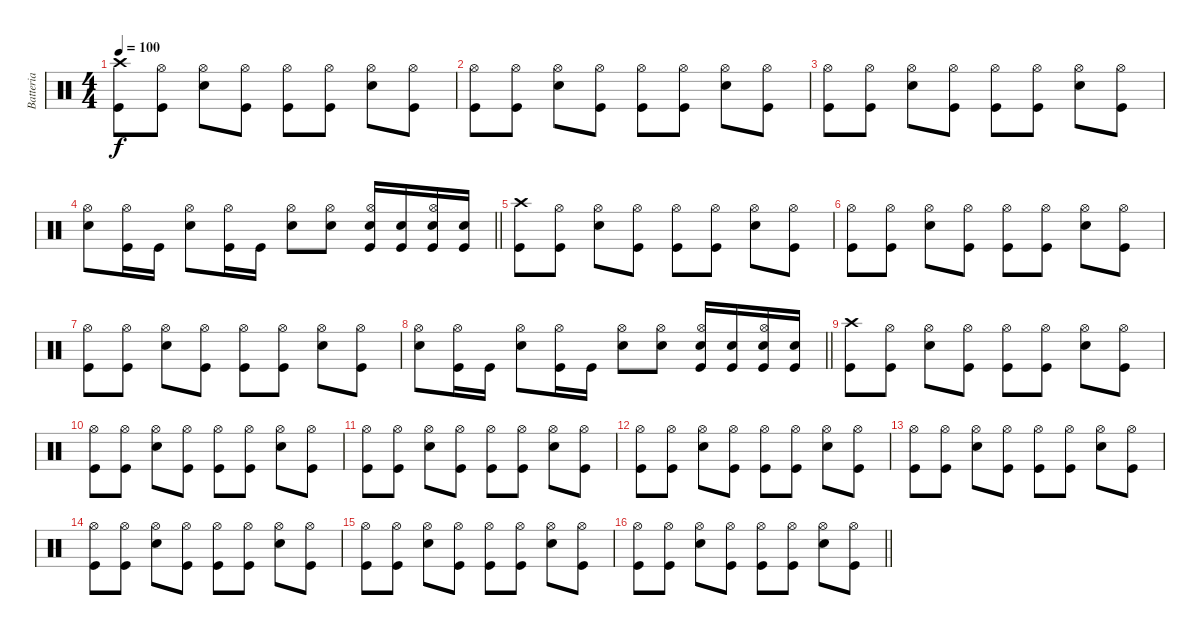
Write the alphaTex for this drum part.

\track ("Batteria" "Batteria") {instrument percussion}
\staff {score}
\articulation defaults
\ts (4 4)
\tempo 100
\clef neutral
\ks c
("Kick (hit)" "Crash high (hit)").8{dy f} ("Kick (hit)" "Hi-Hat (open)").8 ("Snare (hit) 2" "Hi-Hat (open)").8 ("Kick (hit)" "Hi-Hat (open)").8 ("Kick (hit)" "Hi-Hat (open)").8 ("Kick (hit)" "Hi-Hat (open)").8 ("Snare (hit) 2" "Hi-Hat (open)").8 ("Kick (hit)" "Hi-Hat (open)").8 |
("Kick (hit)" "Hi-Hat (open)").8 ("Kick (hit)" "Hi-Hat (open)").8 ("Snare (hit) 2" "Hi-Hat (open)").8 ("Kick (hit)" "Hi-Hat (open)").8 ("Kick (hit)" "Hi-Hat (open)").8 ("Kick (hit)" "Hi-Hat (open)").8 ("Snare (hit) 2" "Hi-Hat (open)").8 ("Kick (hit)" "Hi-Hat (open)").8 |
("Kick (hit)" "Hi-Hat (open)").8 ("Kick (hit)" "Hi-Hat (open)").8 ("Snare (hit) 2" "Hi-Hat (open)").8 ("Kick (hit)" "Hi-Hat (open)").8 ("Kick (hit)" "Hi-Hat (open)").8 ("Kick (hit)" "Hi-Hat (open)").8 ("Snare (hit) 2" "Hi-Hat (open)").8 ("Kick (hit)" "Hi-Hat (open)").8 |
\barLineRight lightlight
("Snare (hit) 2" "Hi-Hat (open)").8 ("Kick (hit)" "Hi-Hat (open)").16 "Kick (hit)".16 ("Snare (hit) 2" "Hi-Hat (open)").8 ("Kick (hit)" "Hi-Hat (open)").16 "Kick (hit)".16 ("Snare (hit) 2" "Hi-Hat (open)").8 ("Snare (hit) 2" "Hi-Hat (open)").8 ("Kick (hit)" "Hi-Hat (open)" "Snare (hit) 2").16 ("Kick (hit)" "Snare (hit) 2").16 ("Kick (hit)" "Hi-Hat (open)" "Snare (hit) 2").16 ("Kick (hit)" "Snare (hit) 2").16 |
("Kick (hit)" "Crash high (hit)").8 ("Kick (hit)" "Hi-Hat (open)").8 ("Snare (hit) 2" "Hi-Hat (open)").8 ("Kick (hit)" "Hi-Hat (open)").8 ("Kick (hit)" "Hi-Hat (open)").8 ("Kick (hit)" "Hi-Hat (open)").8 ("Snare (hit) 2" "Hi-Hat (open)").8 ("Kick (hit)" "Hi-Hat (open)").8 |
("Kick (hit)" "Hi-Hat (open)").8 ("Kick (hit)" "Hi-Hat (open)").8 ("Snare (hit) 2" "Hi-Hat (open)").8 ("Kick (hit)" "Hi-Hat (open)").8 ("Kick (hit)" "Hi-Hat (open)").8 ("Kick (hit)" "Hi-Hat (open)").8 ("Snare (hit) 2" "Hi-Hat (open)").8 ("Kick (hit)" "Hi-Hat (open)").8 |
("Kick (hit)" "Hi-Hat (open)").8 ("Kick (hit)" "Hi-Hat (open)").8 ("Snare (hit) 2" "Hi-Hat (open)").8 ("Kick (hit)" "Hi-Hat (open)").8 ("Kick (hit)" "Hi-Hat (open)").8 ("Kick (hit)" "Hi-Hat (open)").8 ("Snare (hit) 2" "Hi-Hat (open)").8 ("Kick (hit)" "Hi-Hat (open)").8 |
\barLineRight lightlight
("Snare (hit) 2" "Hi-Hat (open)").8 ("Kick (hit)" "Hi-Hat (open)").16 "Kick (hit)".16 ("Snare (hit) 2" "Hi-Hat (open)").8 ("Kick (hit)" "Hi-Hat (open)").16 "Kick (hit)".16 ("Snare (hit) 2" "Hi-Hat (open)").8 ("Snare (hit) 2" "Hi-Hat (open)").8 ("Kick (hit)" "Hi-Hat (open)" "Snare (hit) 2").16 ("Kick (hit)" "Snare (hit) 2").16 ("Kick (hit)" "Hi-Hat (open)" "Snare (hit) 2").16 ("Kick (hit)" "Snare (hit) 2").16 |
("Kick (hit)" "Crash high (hit)").8 ("Kick (hit)" "Hi-Hat (open)").8 ("Snare (hit) 2" "Hi-Hat (open)").8 ("Kick (hit)" "Hi-Hat (open)").8 ("Kick (hit)" "Hi-Hat (open)").8 ("Kick (hit)" "Hi-Hat (open)").8 ("Snare (hit) 2" "Hi-Hat (open)").8 ("Kick (hit)" "Hi-Hat (open)").8 |
("Kick (hit)" "Hi-Hat (open)").8 ("Kick (hit)" "Hi-Hat (open)").8 ("Snare (hit) 2" "Hi-Hat (open)").8 ("Kick (hit)" "Hi-Hat (open)").8 ("Kick (hit)" "Hi-Hat (open)").8 ("Kick (hit)" "Hi-Hat (open)").8 ("Snare (hit) 2" "Hi-Hat (open)").8 ("Kick (hit)" "Hi-Hat (open)").8 |
("Kick (hit)" "Hi-Hat (open)").8 ("Kick (hit)" "Hi-Hat (open)").8 ("Snare (hit) 2" "Hi-Hat (open)").8 ("Kick (hit)" "Hi-Hat (open)").8 ("Kick (hit)" "Hi-Hat (open)").8 ("Kick (hit)" "Hi-Hat (open)").8 ("Snare (hit) 2" "Hi-Hat (open)").8 ("Kick (hit)" "Hi-Hat (open)").8 |
("Kick (hit)" "Hi-Hat (open)").8 ("Kick (hit)" "Hi-Hat (open)").8 ("Snare (hit) 2" "Hi-Hat (open)").8 ("Kick (hit)" "Hi-Hat (open)").8 ("Kick (hit)" "Hi-Hat (open)").8 ("Kick (hit)" "Hi-Hat (open)").8 ("Snare (hit) 2" "Hi-Hat (open)").8 ("Kick (hit)" "Hi-Hat (open)").8 |
("Kick (hit)" "Hi-Hat (open)").8 ("Kick (hit)" "Hi-Hat (open)").8 ("Snare (hit) 2" "Hi-Hat (open)").8 ("Kick (hit)" "Hi-Hat (open)").8 ("Kick (hit)" "Hi-Hat (open)").8 ("Kick (hit)" "Hi-Hat (open)").8 ("Snare (hit) 2" "Hi-Hat (open)").8 ("Kick (hit)" "Hi-Hat (open)").8 |
("Kick (hit)" "Hi-Hat (open)").8 ("Kick (hit)" "Hi-Hat (open)").8 ("Snare (hit) 2" "Hi-Hat (open)").8 ("Kick (hit)" "Hi-Hat (open)").8 ("Kick (hit)" "Hi-Hat (open)").8 ("Kick (hit)" "Hi-Hat (open)").8 ("Snare (hit) 2" "Hi-Hat (open)").8 ("Kick (hit)" "Hi-Hat (open)").8 |
("Kick (hit)" "Hi-Hat (open)").8 ("Kick (hit)" "Hi-Hat (open)").8 ("Snare (hit) 2" "Hi-Hat (open)").8 ("Kick (hit)" "Hi-Hat (open)").8 ("Kick (hit)" "Hi-Hat (open)").8 ("Kick (hit)" "Hi-Hat (open)").8 ("Snare (hit) 2" "Hi-Hat (open)").8 ("Kick (hit)" "Hi-Hat (open)").8 |
\barLineRight lightlight
("Kick (hit)" "Hi-Hat (open)").8 ("Kick (hit)" "Hi-Hat (open)").8 ("Snare (hit) 2" "Hi-Hat (open)").8 ("Kick (hit)" "Hi-Hat (open)").8 ("Kick (hit)" "Hi-Hat (open)").8 ("Kick (hit)" "Hi-Hat (open)").8 ("Snare (hit) 2" "Hi-Hat (open)").8 ("Kick (hit)" "Hi-Hat (open)").8
